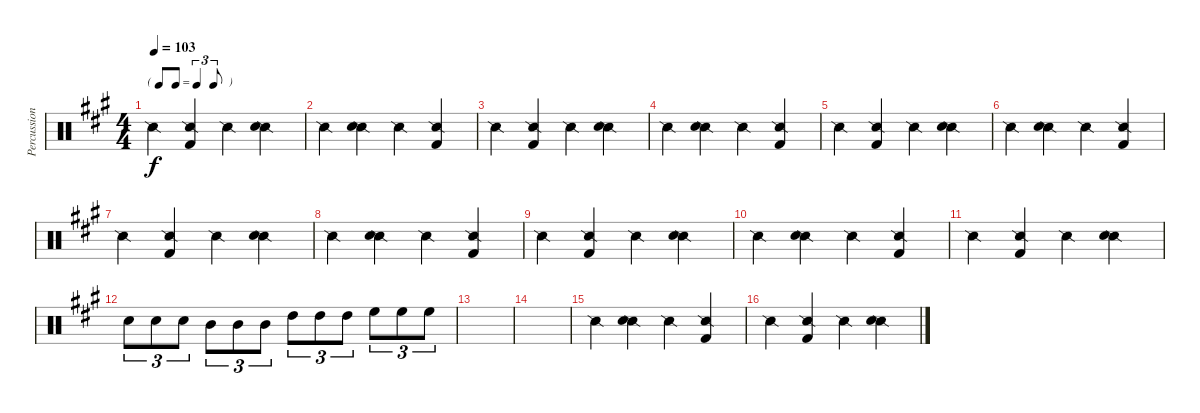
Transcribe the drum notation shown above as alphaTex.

\track ("Percussions" "Percussion") {instrument percussion}
\staff {score}
\articulation defaults
\ts (4 4)
\tf triplet8th
\tempo 103
\clef neutral
\ks a "Snare (side stick) 2".4{dy f}
("Snare (side stick) 2" "Kick (hit) 2").4 "Snare (side stick) 2".4 ("Snare (side stick) 2" "Snare (hit) 2").4 |
"Snare (side stick) 2".4 ("Snare (side stick) 2" "Snare (hit) 2").4 "Snare (side stick) 2".4 ("Snare (side stick) 2" "Kick (hit) 2").4 |
"Snare (side stick) 2".4 ("Snare (side stick) 2" "Kick (hit) 2").4 "Snare (side stick) 2".4 ("Snare (side stick) 2" "Snare (hit) 2").4 |
"Snare (side stick) 2".4 ("Snare (side stick) 2" "Snare (hit) 2").4 "Snare (side stick) 2".4 ("Snare (side stick) 2" "Kick (hit) 2").4 |
"Snare (side stick) 2".4 ("Snare (side stick) 2" "Kick (hit) 2").4 "Snare (side stick) 2".4 ("Snare (side stick) 2" "Snare (hit) 2").4 |
"Snare (side stick) 2".4 ("Snare (side stick) 2" "Snare (hit) 2").4 "Snare (side stick) 2".4 ("Snare (side stick) 2" "Kick (hit) 2").4 |
"Snare (side stick) 2".4 ("Snare (side stick) 2" "Kick (hit) 2").4 "Snare (side stick) 2".4 ("Snare (side stick) 2" "Snare (hit) 2").4 |
"Snare (side stick) 2".4 ("Snare (side stick) 2" "Snare (hit) 2").4 "Snare (side stick) 2".4 ("Snare (side stick) 2" "Kick (hit) 2").4 |
"Snare (side stick) 2".4 ("Snare (side stick) 2" "Kick (hit) 2").4 "Snare (side stick) 2".4 ("Snare (side stick) 2" "Snare (hit) 2").4 |
"Snare (side stick) 2".4 ("Snare (side stick) 2" "Snare (hit) 2").4 "Snare (side stick) 2".4 ("Snare (side stick) 2" "Kick (hit) 2").4 |
"Snare (side stick) 2".4 ("Snare (side stick) 2" "Kick (hit) 2").4 "Snare (side stick) 2".4 ("Snare (side stick) 2" "Snare (hit) 2").4 |
"Snare (hit) 2".8{tu (3 2)} "Snare (hit) 2".8{tu (3 2)} "Snare (hit) 2".8{tu (3 2)} "Mid Tom (hit)".8{tu (3 2)} "Mid Tom (hit)".8{tu (3 2)} "Mid Tom (hit)".8{tu (3 2)} "High Tom (hit)".8{tu (3 2)} "High Tom (hit)".8{tu (3 2)} "High Tom (hit)".8{tu (3 2)} "High Floor Tom (hit)".8{tu (3 2)} "High Floor Tom (hit)".8{tu (3 2)} "High Floor Tom (hit)".8{tu (3 2)} |
|
|
"Snare (side stick) 2".4 ("Snare (side stick) 2" "Snare (hit) 2").4 "Snare (side stick) 2".4 ("Snare (side stick) 2" "Kick (hit) 2").4 |
"Snare (side stick) 2".4 ("Snare (side stick) 2" "Kick (hit) 2").4 "Snare (side stick) 2".4 ("Snare (side stick) 2" "Snare (hit) 2").4
